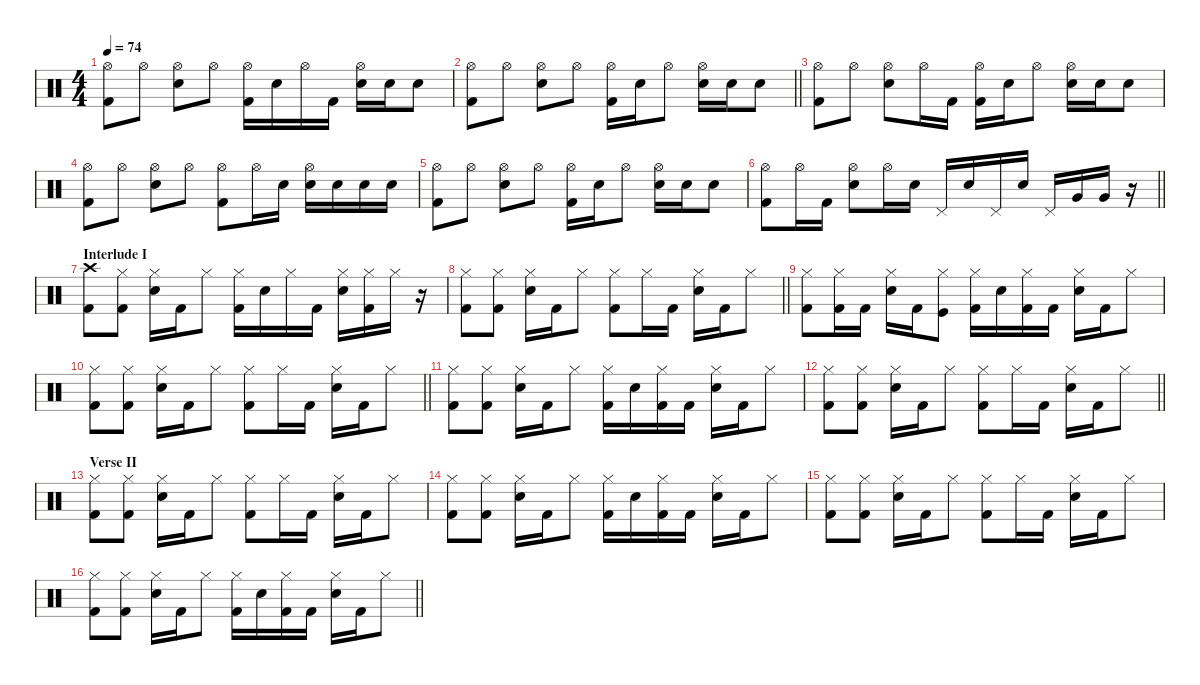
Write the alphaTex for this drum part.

\defaultSystemsLayout 4
\hideDynamics
\bracketExtendMode nobrackets
\singleTrackTrackNamePolicy hidden
\multiTrackTrackNamePolicy hidden
\firstSystemTrackNameMode fullname
\firstSystemTrackNameOrientation horizontal
\otherSystemsTrackNameOrientation horizontal
\track ("Bill Ward" "drm.") {instrument percussion}
\staff {score}
\articulation defaults
\ts (4 4)
\tempo 74
\clef neutral
\ks c
("Kick (hit) 2" "Hi-Hat (open)").8{dy f beam Down} "Hi-Hat (open)".8{beam Down} ("Snare (hit) 2" "Hi-Hat (open)").8{beam Down} "Hi-Hat (open)".8{beam Down} ("Kick (hit) 2" "Hi-Hat (open)").16{beam Down} "Snare (hit) 2".16{beam Down} "Hi-Hat (open)".16{beam Down} "Kick (hit) 2".16{beam Down} ("Snare (hit) 2" "Hi-Hat (open)").16{beam Down} "Snare (hit) 2".16{beam Down} "Snare (hit) 2".8{beam Down} |
\barLineRight lightlight
("Kick (hit) 2" "Hi-Hat (open)").8{beam Down} "Hi-Hat (open)".8{beam Down} ("Snare (hit) 2" "Hi-Hat (open)").8{beam Down} "Hi-Hat (open)".8{beam Down} ("Kick (hit) 2" "Hi-Hat (open)").16{beam Down} "Snare (hit) 2".16{beam Down} "Hi-Hat (open)".8{beam Down} ("Snare (hit) 2" "Hi-Hat (open)").16{beam Down} "Snare (hit) 2".16{beam Down} "Snare (hit) 2".8{beam Down} |
("Kick (hit) 2" "Hi-Hat (open)").8{beam Down} "Hi-Hat (open)".8{beam Down} ("Snare (hit) 2" "Hi-Hat (open)").8{beam Down} "Hi-Hat (open)".16{beam Down} "Kick (hit) 2".16{beam Down} ("Kick (hit) 2" "Hi-Hat (open)").16{beam Down} "Snare (hit) 2".16{beam Down} "Hi-Hat (open)".8{beam Down} ("Snare (hit) 2" "Hi-Hat (open)").16{beam Down} "Snare (hit) 2".16{beam Down} "Snare (hit) 2".8{beam Down} |
("Kick (hit) 2" "Hi-Hat (open)").8{beam Down} "Hi-Hat (open)".8{beam Down} ("Snare (hit) 2" "Hi-Hat (open)").8{beam Down} "Hi-Hat (open)".8{beam Down} ("Kick (hit) 2" "Hi-Hat (open)").8{beam Down} "Hi-Hat (open)".16{beam Down} "Snare (hit) 2".16{beam Down} ("Snare (hit) 2" "Hi-Hat (open)").16{beam Down} "Snare (hit) 2".16{beam Down} "Snare (hit) 2".16{beam Down} "Snare (hit) 2".16{beam Down} |
("Kick (hit) 2" "Hi-Hat (open)").8{beam Down} "Hi-Hat (open)".8{beam Down} ("Snare (hit) 2" "Hi-Hat (open)").8{beam Down} "Hi-Hat (open)".8{beam Down} ("Kick (hit) 2" "Hi-Hat (open)").16{beam Down} "Snare (hit) 2".16{beam Down} "Hi-Hat (open)".8{beam Down} ("Snare (hit) 2" "Hi-Hat (open)").16{beam Down} "Snare (hit) 2".16{beam Down} "Snare (hit) 2".8{beam Down} |
\barLineRight lightlight
("Kick (hit) 2" "Hi-Hat (open)").8{beam Down} "Hi-Hat (open)".16{beam Down} "Kick (hit) 2".16{beam Down} ("Snare (hit) 2" "Hi-Hat (open)").8{beam Down} "Hi-Hat (open)".16{beam Down} "Snare (hit) 2".16{beam Down} "Pedal Hi-Hat (hit)".16{beam Up} "Snare (hit) 2".16{beam Up} "Pedal Hi-Hat (hit)".16{beam Up} "Snare (hit) 2".16{beam Up} "Pedal Hi-Hat (hit)".16{beam Up} "Very Low Tom (hit)".16{beam Up} "Very Low Tom (hit)".16{beam Up} r.16{beam Up} |
\section ("" "Interlude I")
("Kick (hit) 2" "Crash high (hit)").8{beam Down} ("Kick (hit) 2" "Hi-Hat (closed)").8{beam Down} ("Snare (hit) 2" "Hi-Hat (closed)").16{beam Down} "Kick (hit) 2".16{beam Down} "Hi-Hat (closed)".8{beam Down} ("Kick (hit) 2" "Hi-Hat (closed)").16{beam Down} "Snare (hit) 2".16{beam Down} "Hi-Hat (closed)".16{beam Down} "Kick (hit) 2".16{beam Down} ("Snare (hit) 2" "Hi-Hat (closed)").16{beam Down} ("Kick (hit) 2" "Hi-Hat (closed)").16{beam Down} "Hi-Hat (closed)".16{beam Down} r.16{beam Down} |
\barLineRight lightlight
("Kick (hit) 2" "Hi-Hat (closed)").8{beam Down} ("Kick (hit) 2" "Hi-Hat (closed)").8{beam Down} ("Snare (hit) 2" "Hi-Hat (closed)").16{beam Down} "Kick (hit) 2".16{beam Down} "Hi-Hat (closed)".8{beam Down} ("Kick (hit) 2" "Hi-Hat (closed)").8{beam Down} "Hi-Hat (closed)".16{beam Down} "Kick (hit) 2".16{beam Down} ("Snare (hit) 2" "Hi-Hat (closed)").16{beam Down} "Kick (hit) 2".16{beam Down} "Hi-Hat (closed)".8{beam Down} |
("Kick (hit) 2" "Hi-Hat (closed)").8{beam Down} ("Hi-Hat (closed)" "Kick (hit) 2").16{beam Down} "Kick (hit) 2".16{beam Down} ("Snare (hit) 2" "Hi-Hat (closed)").16{beam Down} "Kick (hit) 2".16{beam Down} ("Hi-Hat (closed)" "Kick (hit)").8{beam Down} ("Kick (hit) 2" "Hi-Hat (closed)").16{beam Down} "Snare (hit) 2".16{beam Down} ("Kick (hit) 2" "Hi-Hat (closed)").16{beam Down} "Kick (hit) 2".16{beam Down} ("Snare (hit) 2" "Hi-Hat (closed)").16{beam Down} "Kick (hit) 2".16{beam Down} "Hi-Hat (closed)".8{beam Down} |
\barLineRight lightlight
("Kick (hit) 2" "Hi-Hat (closed)").8{beam Down} ("Kick (hit) 2" "Hi-Hat (closed)").8{beam Down} ("Snare (hit) 2" "Hi-Hat (closed)").16{beam Down} "Kick (hit) 2".16{beam Down} "Hi-Hat (closed)".8{beam Down} ("Kick (hit) 2" "Hi-Hat (closed)").8{beam Down} "Hi-Hat (closed)".16{beam Down} "Kick (hit) 2".16{beam Down} ("Snare (hit) 2" "Hi-Hat (closed)").16{beam Down} "Kick (hit) 2".16{beam Down} "Hi-Hat (closed)".8{beam Down} |
("Kick (hit) 2" "Hi-Hat (closed)").8{beam Down} ("Hi-Hat (closed)" "Kick (hit) 2").8{beam Down} ("Snare (hit) 2" "Hi-Hat (closed)").16{beam Down} "Kick (hit) 2".16{beam Down} "Hi-Hat (closed)".8{beam Down} ("Kick (hit) 2" "Hi-Hat (closed)").16{beam Down} "Snare (hit) 2".16{beam Down} ("Kick (hit) 2" "Hi-Hat (closed)").16{beam Down} "Kick (hit) 2".16{beam Down} ("Snare (hit) 2" "Hi-Hat (closed)").16{beam Down} "Kick (hit) 2".16{beam Down} "Hi-Hat (closed)".8{beam Down} |
\barLineRight lightlight
("Kick (hit) 2" "Hi-Hat (closed)").8{beam Down} ("Kick (hit) 2" "Hi-Hat (closed)").8{beam Down} ("Snare (hit) 2" "Hi-Hat (closed)").16{beam Down} "Kick (hit) 2".16{beam Down} "Hi-Hat (closed)".8{beam Down} ("Kick (hit) 2" "Hi-Hat (closed)").8{beam Down} "Hi-Hat (closed)".16{beam Down} "Kick (hit) 2".16{beam Down} ("Snare (hit) 2" "Hi-Hat (closed)").16{beam Down} "Kick (hit) 2".16{beam Down} "Hi-Hat (closed)".8{beam Down} |
\section ("" "Verse II")
("Kick (hit) 2" "Hi-Hat (closed)").8{beam Down} ("Kick (hit) 2" "Hi-Hat (closed)").8{beam Down} ("Snare (hit) 2" "Hi-Hat (closed)").16{beam Down} "Kick (hit) 2".16{beam Down} "Hi-Hat (closed)".8{beam Down} ("Kick (hit) 2" "Hi-Hat (closed)").8{beam Down} "Hi-Hat (closed)".16{beam Down} "Kick (hit) 2".16{beam Down} ("Snare (hit) 2" "Hi-Hat (closed)").16{beam Down} "Kick (hit) 2".16{beam Down} "Hi-Hat (closed)".8{beam Down} |
("Kick (hit) 2" "Hi-Hat (closed)").8{beam Down} ("Hi-Hat (closed)" "Kick (hit) 2").8{beam Down} ("Snare (hit) 2" "Hi-Hat (closed)").16{beam Down} "Kick (hit) 2".16{beam Down} "Hi-Hat (closed)".8{beam Down} ("Kick (hit) 2" "Hi-Hat (closed)").16{beam Down} "Snare (hit) 2".16{beam Down} ("Kick (hit) 2" "Hi-Hat (closed)").16{beam Down} "Kick (hit) 2".16{beam Down} ("Snare (hit) 2" "Hi-Hat (closed)").16{beam Down} "Kick (hit) 2".16{beam Down} "Hi-Hat (closed)".8{beam Down} |
("Kick (hit) 2" "Hi-Hat (closed)").8{beam Down} ("Kick (hit) 2" "Hi-Hat (closed)").8{beam Down} ("Snare (hit) 2" "Hi-Hat (closed)").16{beam Down} "Kick (hit) 2".16{beam Down} "Hi-Hat (closed)".8{beam Down} ("Kick (hit) 2" "Hi-Hat (closed)").8{beam Down} "Hi-Hat (closed)".16{beam Down} "Kick (hit) 2".16{beam Down} ("Snare (hit) 2" "Hi-Hat (closed)").16{beam Down} "Kick (hit) 2".16{beam Down} "Hi-Hat (closed)".8{beam Down} |
\barLineRight lightlight
("Kick (hit) 2" "Hi-Hat (closed)").8{beam Down} ("Hi-Hat (closed)" "Kick (hit) 2").8{beam Down} ("Snare (hit) 2" "Hi-Hat (closed)").16{beam Down} "Kick (hit) 2".16{beam Down} "Hi-Hat (closed)".8{beam Down} ("Kick (hit) 2" "Hi-Hat (closed)").16{beam Down} "Snare (hit) 2".16{beam Down} ("Kick (hit) 2" "Hi-Hat (closed)").16{beam Down} "Kick (hit) 2".16{beam Down} ("Snare (hit) 2" "Hi-Hat (closed)").16{beam Down} "Kick (hit) 2".16{beam Down} "Hi-Hat (closed)".8{beam Down}
